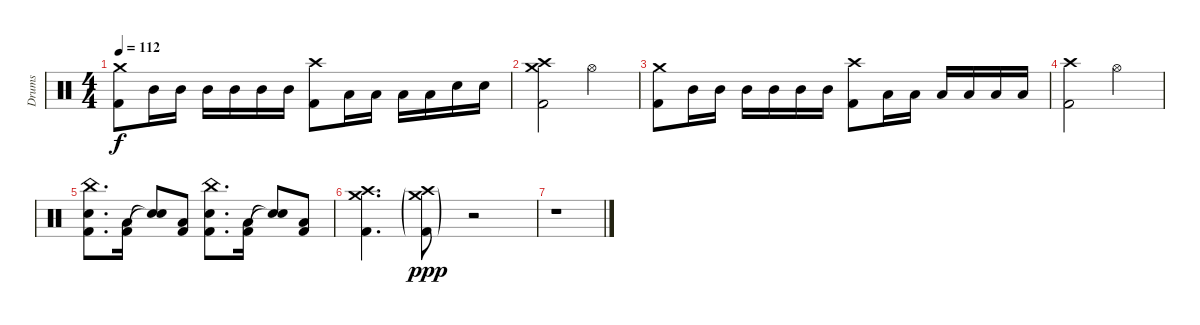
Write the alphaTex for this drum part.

\track ("Drums" "Drums") {instrument percussion}
\staff {score}
\articulation defaults
\ts (4 4)
\tempo 112
\clef neutral
\ks c
("Crash medium (hit)" "Kick (hit) 2").8{dy f} "Mid Tom (hit)".16 "Mid Tom (hit)".16 "Mid Tom (hit)".16 "Mid Tom (hit)".16 "Mid Tom (hit)".16 "Mid Tom (hit)".16 ("Crash high (hit)" "Kick (hit) 2").8 "Low Tom (hit)".16 "Low Tom (hit)".16 "Low Tom (hit)".16 "Low Tom (hit)".16 "Electric Snare (hit)".16 "Electric Snare (hit)".16 |
("Crash high (hit)" "Crash medium (hit)" "Kick (hit) 2").2 "Hi-Hat (open)".2 |
("Crash medium (hit)" "Kick (hit) 2").8 "Mid Tom (hit)".16 "Mid Tom (hit)".16 "Mid Tom (hit)".16 "Mid Tom (hit)".16 "Mid Tom (hit)".16 "Mid Tom (hit)".16 ("Crash high (hit)" "Kick (hit) 2").8 "Low Tom (hit)".16 "Low Tom (hit)".16 "Low Tom (hit)".16 "Low Tom (hit)".16 "Low Tom (hit)".16 "Low Tom (hit)".16 |
("Crash high (hit)" "Kick (hit) 2").2 "Hi-Hat (open)".2 |
("China (hit)" "Electric Snare (hit)" "Kick (hit) 2").8{d} ("Low Floor Tom (hit)" "Kick (hit) 2").16 ("Snare (hit)"{t} "Snare (hit)"{t}).8 ("Low Floor Tom (hit)" "Kick (hit) 2").8 ("China (hit)" "Electric Snare (hit)" "Kick (hit) 2").8{d} ("Low Floor Tom (hit)" "Kick (hit) 2").16 ("Snare (hit)"{t} "Snare (hit)"{t}).8 ("Low Floor Tom (hit)" "Kick (hit) 2").8 |
("Crash high (hit)" "Crash medium (hit)" "Kick (hit) 2").4{d} ("Crash high (hit)"{g} "Crash medium (hit)"{g} "Kick (hit) 2"{g}).8{dy ppp} r.2 |
r.1
